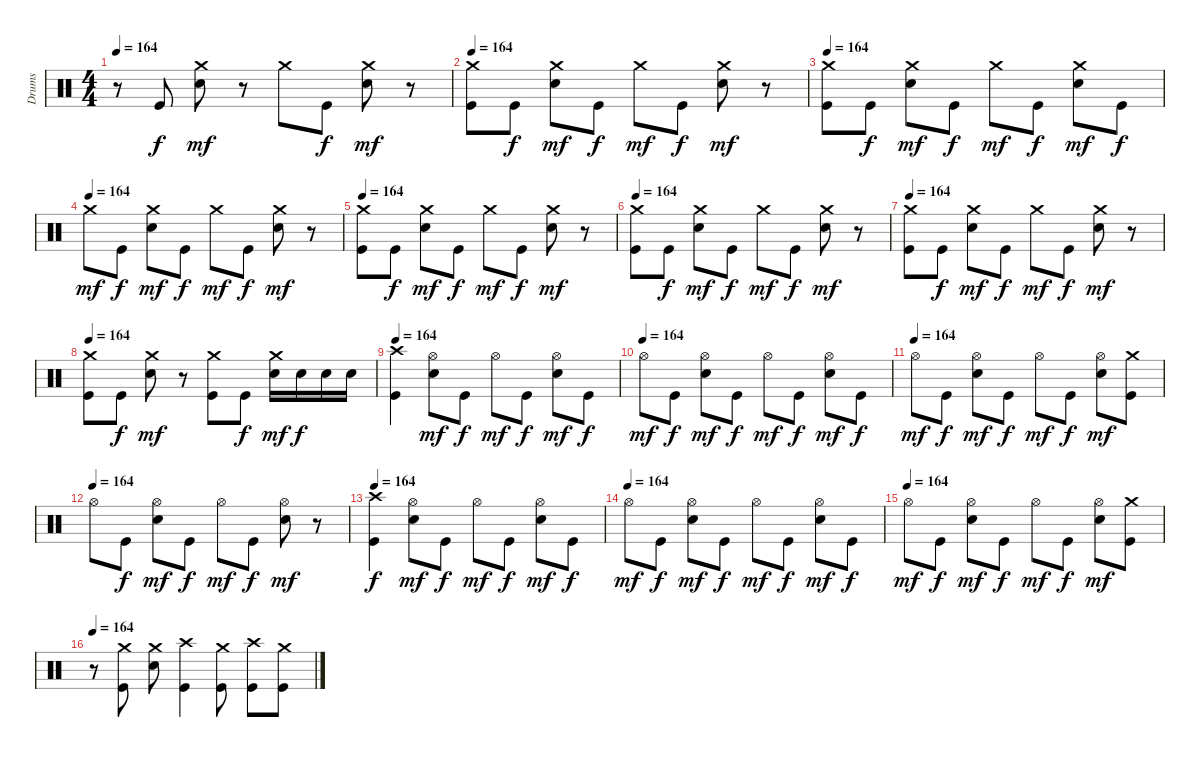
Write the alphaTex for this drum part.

\track ("Drums" "Drums") {instrument percussion}
\staff {score}
\articulation defaults
\ts (4 4)
\tempo 164
\clef neutral
\ks c
r.8{dy f} "Kick (hit)".8 ("Electric Snare (hit)" "Crash medium (hit)").8{dy mf} r.8 "Crash medium (hit)".8 "Kick (hit)".8{dy f} ("Electric Snare (hit)" "Crash medium (hit)").8{dy mf} r.8 |
\tempo 164
("Kick (hit)" "Crash medium (hit)").8 "Kick (hit)".8{dy f} ("Electric Snare (hit)" "Crash medium (hit)").8{dy mf} "Kick (hit)".8{dy f} "Crash medium (hit)".8{dy mf} "Kick (hit)".8{dy f} ("Electric Snare (hit)" "Crash medium (hit)").8{dy mf} r.8 |
\tempo 164
("Kick (hit)" "Crash medium (hit)").8 "Kick (hit)".8{dy f} ("Electric Snare (hit)" "Crash medium (hit)").8{dy mf} "Kick (hit)".8{dy f} "Crash medium (hit)".8{dy mf} "Kick (hit)".8{dy f} ("Electric Snare (hit)" "Crash medium (hit)").8{dy mf} "Kick (hit)".8{dy f} |
\tempo (164)
"Crash medium (hit)".8{dy mf} "Kick (hit)".8{dy f} ("Electric Snare (hit)" "Crash medium (hit)").8{dy mf} "Kick (hit)".8{dy f} "Crash medium (hit)".8{dy mf} "Kick (hit)".8{dy f} ("Electric Snare (hit)" "Crash medium (hit)").8{dy mf} r.8 |
\tempo 164
("Kick (hit)" "Crash medium (hit)").8 "Kick (hit)".8{dy f} ("Electric Snare (hit)" "Crash medium (hit)").8{dy mf} "Kick (hit)".8{dy f} "Crash medium (hit)".8{dy mf} "Kick (hit)".8{dy f} ("Electric Snare (hit)" "Crash medium (hit)").8{dy mf} r.8 |
\tempo 164
("Kick (hit)" "Crash medium (hit)").8 "Kick (hit)".8{dy f} ("Electric Snare (hit)" "Crash medium (hit)").8{dy mf} "Kick (hit)".8{dy f} "Crash medium (hit)".8{dy mf} "Kick (hit)".8{dy f} ("Electric Snare (hit)" "Crash medium (hit)").8{dy mf} r.8 |
\tempo 164
("Kick (hit)" "Crash medium (hit)").8 "Kick (hit)".8{dy f} ("Electric Snare (hit)" "Crash medium (hit)").8{dy mf} "Kick (hit)".8{dy f} "Crash medium (hit)".8{dy mf} "Kick (hit)".8{dy f} ("Electric Snare (hit)" "Crash medium (hit)").8{dy mf} r.8 |
\tempo 164
("Kick (hit)" "Crash medium (hit)").8 "Kick (hit)".8{dy f} ("Electric Snare (hit)" "Crash medium (hit)").8{dy mf} r.8 ("Kick (hit)" "Crash medium (hit)").8 "Kick (hit)".8{dy f} ("Electric Snare (hit)" "Crash medium (hit)").16{dy mf} "Electric Snare (hit)".16{dy f} "Electric Snare (hit)".16 "Electric Snare (hit)".16 |
\tempo 164
("Kick (hit)" "Crash high (hit)").4 ("Electric Snare (hit)" "Hi-Hat (open)").8{dy mf} "Kick (hit)".8{dy f} "Hi-Hat (open)".8{dy mf} "Kick (hit)".8{dy f} ("Electric Snare (hit)" "Hi-Hat (open)").8{dy mf} "Kick (hit)".8{dy f} |
\tempo (164)
"Hi-Hat (open)".8{dy mf} "Kick (hit)".8{dy f} ("Electric Snare (hit)" "Hi-Hat (open)").8{dy mf} "Kick (hit)".8{dy f} "Hi-Hat (open)".8{dy mf} "Kick (hit)".8{dy f} ("Electric Snare (hit)" "Hi-Hat (open)").8{dy mf} "Kick (hit)".8{dy f} |
\tempo (164)
"Hi-Hat (open)".8{dy mf} "Kick (hit)".8{dy f} ("Electric Snare (hit)" "Hi-Hat (open)").8{dy mf} "Kick (hit)".8{dy f} "Hi-Hat (open)".8{dy mf} "Kick (hit)".8{dy f} ("Electric Snare (hit)" "Hi-Hat (open)").8{dy mf} ("Kick (hit)" "Crash medium (hit)").8 |
\tempo (164)
"Hi-Hat (open)".8 "Kick (hit)".8{dy f} ("Electric Snare (hit)" "Hi-Hat (open)").8{dy mf} "Kick (hit)".8{dy f} "Hi-Hat (open)".8{dy mf} "Kick (hit)".8{dy f} ("Electric Snare (hit)" "Hi-Hat (open)").8{dy mf} r.8 |
\tempo 164
("Kick (hit)" "Crash high (hit)").4{dy f} ("Electric Snare (hit)" "Hi-Hat (open)").8{dy mf} "Kick (hit)".8{dy f} "Hi-Hat (open)".8{dy mf} "Kick (hit)".8{dy f} ("Electric Snare (hit)" "Hi-Hat (open)").8{dy mf} "Kick (hit)".8{dy f} |
\tempo (164)
"Hi-Hat (open)".8{dy mf} "Kick (hit)".8{dy f} ("Electric Snare (hit)" "Hi-Hat (open)").8{dy mf} "Kick (hit)".8{dy f} "Hi-Hat (open)".8{dy mf} "Kick (hit)".8{dy f} ("Electric Snare (hit)" "Hi-Hat (open)").8{dy mf} "Kick (hit)".8{dy f} |
\tempo (164)
"Hi-Hat (open)".8{dy mf} "Kick (hit)".8{dy f} ("Electric Snare (hit)" "Hi-Hat (open)").8{dy mf} "Kick (hit)".8{dy f} "Hi-Hat (open)".8{dy mf} "Kick (hit)".8{dy f} ("Electric Snare (hit)" "Hi-Hat (open)").8{dy mf} ("Kick (hit)" "Crash medium (hit)").8 |
\tempo 164
r.8 ("Kick (hit)" "Crash medium (hit)").8 ("Electric Snare (hit)" "Crash medium (hit)").8 ("Kick (hit)" "Crash high (hit)").4 ("Kick (hit)" "Crash medium (hit)").8 ("Kick (hit)" "Crash high (hit)").8 ("Kick (hit)" "Crash medium (hit)").8
